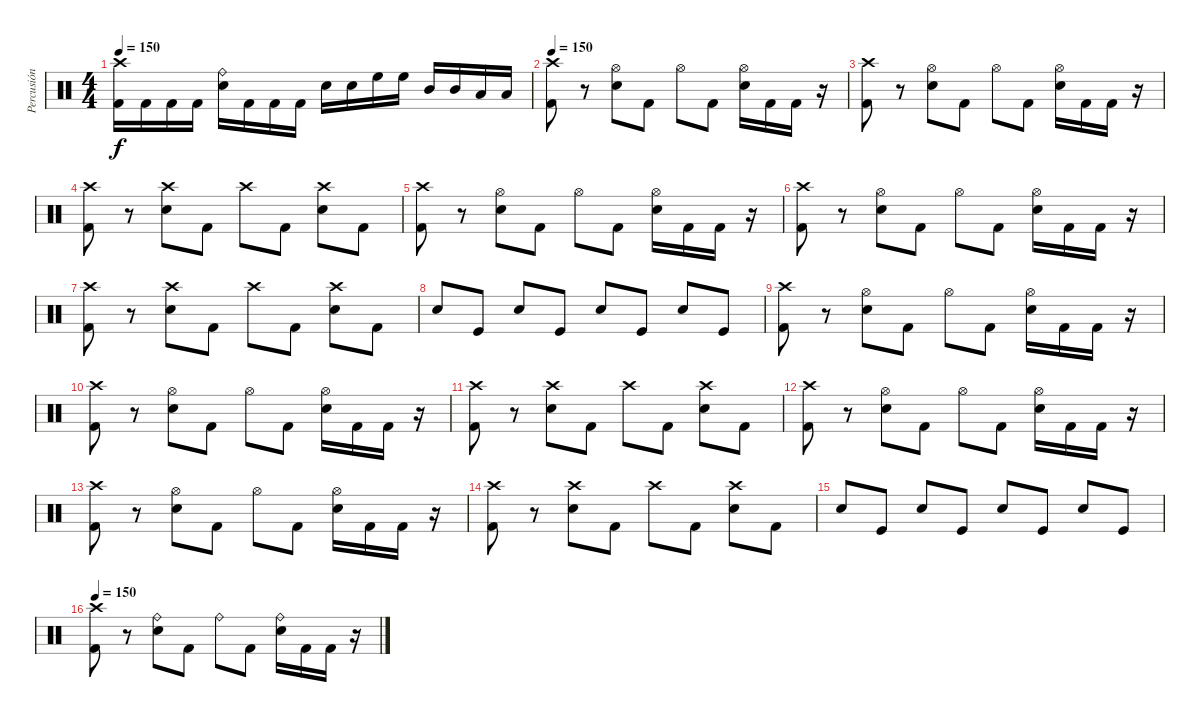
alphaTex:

\track ("Percusión" "Percusión") {instrument percussion}
\staff {score}
\articulation defaults
\ts (4 4)
\tempo 150
\clef neutral
\ks c
("Crash high (hit)" "Kick (hit) 2").16{dy f} "Kick (hit) 2".16 "Kick (hit) 2".16 "Kick (hit) 2".16 ("Ride (bell)" "Electric Snare (hit)").16 "Kick (hit) 2".16 "Kick (hit) 2".16 "Kick (hit) 2".16 "Electric Snare (hit)".16 "Electric Snare (hit)".16 "High Floor Tom (hit)".16 "High Floor Tom (hit)".16 "Mid Tom (hit)".16 "Mid Tom (hit)".16 "Low Tom (hit)".16 "Low Tom (hit)".16 |
\tempo 150
("Crash high (hit)" "Kick (hit) 2").8 r.8 ("Hi-Hat (open)" "Electric Snare (hit)").8 "Kick (hit) 2".8 "Hi-Hat (open)".8 "Kick (hit) 2".8 ("Hi-Hat (open)" "Electric Snare (hit)").16 "Kick (hit) 2".16 "Kick (hit) 2".16 r.16 |
("Crash high (hit)" "Kick (hit) 2").8 r.8 ("Hi-Hat (open)" "Electric Snare (hit)").8 "Kick (hit) 2".8 "Hi-Hat (open)".8 "Kick (hit) 2".8 ("Hi-Hat (open)" "Electric Snare (hit)").16 "Kick (hit) 2".16 "Kick (hit) 2".16 r.16 |
("Crash high (hit)" "Kick (hit) 2").8 r.8 ("Crash high (hit)" "Electric Snare (hit)").8 "Kick (hit) 2".8 "Crash high (hit)".8 "Kick (hit) 2".8 ("Crash high (hit)" "Electric Snare (hit)").8 "Kick (hit) 2".8 |
("Crash high (hit)" "Kick (hit) 2").8 r.8 ("Hi-Hat (open)" "Electric Snare (hit)").8 "Kick (hit) 2".8 "Hi-Hat (open)".8 "Kick (hit) 2".8 ("Hi-Hat (open)" "Electric Snare (hit)").16 "Kick (hit) 2".16 "Kick (hit) 2".16 r.16 |
("Crash high (hit)" "Kick (hit) 2").8 r.8 ("Hi-Hat (open)" "Electric Snare (hit)").8 "Kick (hit) 2".8 "Hi-Hat (open)".8 "Kick (hit) 2".8 ("Hi-Hat (open)" "Electric Snare (hit)").16 "Kick (hit) 2".16 "Kick (hit) 2".16 r.16 |
("Crash high (hit)" "Kick (hit) 2").8 r.8 ("Crash high (hit)" "Electric Snare (hit)").8 "Kick (hit) 2".8 "Crash high (hit)".8 "Kick (hit) 2".8 ("Crash high (hit)" "Electric Snare (hit)").8 "Kick (hit) 2".8 |
"Electric Snare (hit)".8 "Kick (hit)".8 "Electric Snare (hit)".8 "Kick (hit)".8 "Electric Snare (hit)".8 "Kick (hit)".8 "Electric Snare (hit)".8 "Kick (hit)".8 |
("Crash high (hit)" "Kick (hit) 2").8 r.8 ("Hi-Hat (open)" "Electric Snare (hit)").8 "Kick (hit) 2".8 "Hi-Hat (open)".8 "Kick (hit) 2".8 ("Hi-Hat (open)" "Electric Snare (hit)").16 "Kick (hit) 2".16 "Kick (hit) 2".16 r.16 |
("Crash high (hit)" "Kick (hit) 2").8 r.8 ("Hi-Hat (open)" "Electric Snare (hit)").8 "Kick (hit) 2".8 "Hi-Hat (open)".8 "Kick (hit) 2".8 ("Hi-Hat (open)" "Electric Snare (hit)").16 "Kick (hit) 2".16 "Kick (hit) 2".16 r.16 |
("Crash high (hit)" "Kick (hit) 2").8 r.8 ("Crash high (hit)" "Electric Snare (hit)").8 "Kick (hit) 2".8 "Crash high (hit)".8 "Kick (hit) 2".8 ("Crash high (hit)" "Electric Snare (hit)").8 "Kick (hit) 2".8 |
("Crash high (hit)" "Kick (hit) 2").8 r.8 ("Hi-Hat (open)" "Electric Snare (hit)").8 "Kick (hit) 2".8 "Hi-Hat (open)".8 "Kick (hit) 2".8 ("Hi-Hat (open)" "Electric Snare (hit)").16 "Kick (hit) 2".16 "Kick (hit) 2".16 r.16 |
("Crash high (hit)" "Kick (hit) 2").8 r.8 ("Hi-Hat (open)" "Electric Snare (hit)").8 "Kick (hit) 2".8 "Hi-Hat (open)".8 "Kick (hit) 2".8 ("Hi-Hat (open)" "Electric Snare (hit)").16 "Kick (hit) 2".16 "Kick (hit) 2".16 r.16 |
("Crash high (hit)" "Kick (hit) 2").8 r.8 ("Crash high (hit)" "Electric Snare (hit)").8 "Kick (hit) 2".8 "Crash high (hit)".8 "Kick (hit) 2".8 ("Crash high (hit)" "Electric Snare (hit)").8 "Kick (hit) 2".8 |
"Electric Snare (hit)".8 "Kick (hit)".8 "Electric Snare (hit)".8 "Kick (hit)".8 "Electric Snare (hit)".8 "Kick (hit)".8 "Electric Snare (hit)".8 "Kick (hit)".8 |
\tempo 150
("Crash high (hit)" "Kick (hit) 2").8 r.8 ("Ride (bell)" "Electric Snare (hit)").8 "Kick (hit) 2".8 "Ride (bell)".8 "Kick (hit) 2".8 ("Ride (bell)" "Electric Snare (hit)").16 "Kick (hit) 2".16 "Kick (hit) 2".16 r.16
